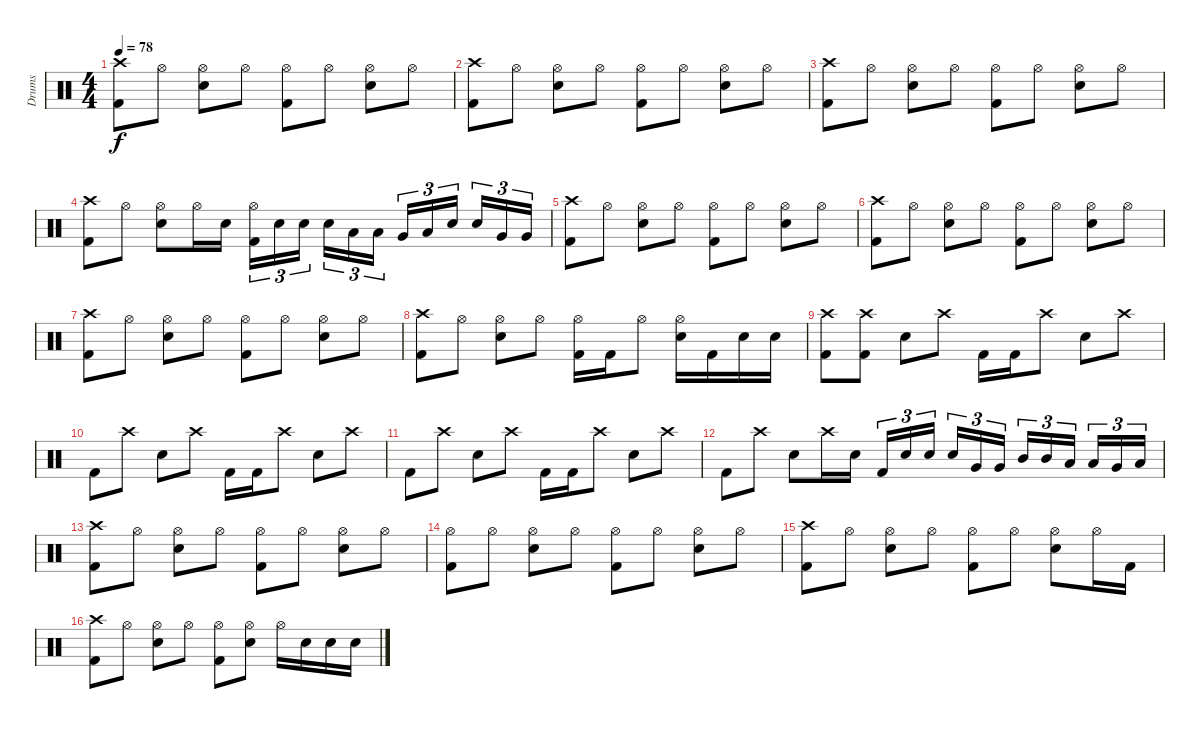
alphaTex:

\track ("Drums" "Drums") {instrument percussion}
\staff {score}
\articulation defaults
\ts (4 4)
\tempo 78
\clef neutral
\ks c
("Crash high (hit)" "Kick (hit) 2").8{dy f} "Hi-Hat (open)".8 ("Hi-Hat (open)" "Snare (hit) 2").8 "Hi-Hat (open)".8 ("Hi-Hat (open)" "Kick (hit) 2").8 "Hi-Hat (open)".8 ("Hi-Hat (open)" "Snare (hit) 2").8 "Hi-Hat (open)".8 |
("Crash high (hit)" "Kick (hit) 2").8 "Hi-Hat (open)".8 ("Hi-Hat (open)" "Snare (hit) 2").8 "Hi-Hat (open)".8 ("Hi-Hat (open)" "Kick (hit) 2").8 "Hi-Hat (open)".8 ("Hi-Hat (open)" "Snare (hit) 2").8 "Hi-Hat (open)".8 |
("Crash high (hit)" "Kick (hit) 2").8 "Hi-Hat (open)".8 ("Hi-Hat (open)" "Snare (hit) 2").8 "Hi-Hat (open)".8 ("Hi-Hat (open)" "Kick (hit) 2").8 "Hi-Hat (open)".8 ("Hi-Hat (open)" "Snare (hit) 2").8 "Hi-Hat (open)".8 |
("Crash high (hit)" "Kick (hit) 2").8 "Hi-Hat (open)".8 ("Hi-Hat (open)" "Snare (hit) 2").8 "Hi-Hat (open)".16 "Snare (hit) 2".16 ("Hi-Hat (open)" "Kick (hit) 2").16{tu (3 2)} "Snare (hit) 2".16{tu (3 2)} "Snare (hit) 2".16{tu (3 2)} "Snare (hit) 2".16{tu (3 2)} "Low Floor Tom (hit)".16{tu (3 2)} "Low Floor Tom (hit)".16{tu (3 2)} "Very Low Tom (hit)".16{tu (3 2)} "Low Floor Tom (hit)".16{tu (3 2)} "Snare (hit) 2".16{tu (3 2)} "Snare (hit) 2".16{tu (3 2)} "Very Low Tom (hit)".16{tu (3 2)} "Very Low Tom (hit)".16{tu (3 2)} |
("Crash high (hit)" "Kick (hit) 2").8 "Hi-Hat (open)".8 ("Hi-Hat (open)" "Snare (hit) 2").8 "Hi-Hat (open)".8 ("Hi-Hat (open)" "Kick (hit) 2").8 "Hi-Hat (open)".8 ("Hi-Hat (open)" "Snare (hit) 2").8 "Hi-Hat (open)".8 |
("Crash high (hit)" "Kick (hit) 2").8 "Hi-Hat (open)".8 ("Hi-Hat (open)" "Snare (hit) 2").8 "Hi-Hat (open)".8 ("Hi-Hat (open)" "Kick (hit) 2").8 "Hi-Hat (open)".8 ("Hi-Hat (open)" "Snare (hit) 2").8 "Hi-Hat (open)".8 |
("Crash high (hit)" "Kick (hit) 2").8 "Hi-Hat (open)".8 ("Hi-Hat (open)" "Snare (hit) 2").8 "Hi-Hat (open)".8 ("Hi-Hat (open)" "Kick (hit) 2").8 "Hi-Hat (open)".8 ("Hi-Hat (open)" "Snare (hit) 2").8 "Hi-Hat (open)".8 |
("Crash high (hit)" "Kick (hit) 2").8 "Hi-Hat (open)".8 ("Hi-Hat (open)" "Snare (hit) 2").8 "Hi-Hat (open)".8 ("Hi-Hat (open)" "Kick (hit) 2").16 "Kick (hit) 2".16 "Hi-Hat (open)".8 ("Hi-Hat (open)" "Snare (hit) 2").16 "Kick (hit) 2".16 "Snare (hit) 2".16 "Snare (hit) 2".16 |
("Crash high (hit)" "Kick (hit) 2").8 ("Crash high (hit)" "Kick (hit) 2").8 "Snare (hit) 2".8 "Crash high (hit)".8 "Kick (hit) 2".16 "Kick (hit) 2".16 "Crash high (hit)".8 "Snare (hit) 2".8 "Crash high (hit)".8 |
"Kick (hit) 2".8 "Crash high (hit)".8 "Snare (hit) 2".8 "Crash high (hit)".8 "Kick (hit) 2".16 "Kick (hit) 2".16 "Crash high (hit)".8 "Snare (hit) 2".8 "Crash high (hit)".8 |
"Kick (hit) 2".8 "Crash high (hit)".8 "Snare (hit) 2".8 "Crash high (hit)".8 "Kick (hit) 2".16 "Kick (hit) 2".16 "Crash high (hit)".8 "Snare (hit) 2".8 "Crash high (hit)".8 |
"Kick (hit) 2".8 "Crash high (hit)".8 "Snare (hit) 2".8 "Crash high (hit)".16 "Snare (hit) 2".16 "Kick (hit) 2".16{tu (3 2)} "Snare (hit) 2".16{tu (3 2)} "Snare (hit) 2".16{tu (3 2)} "Snare (hit) 2".16{tu (3 2)} "Very Low Tom (hit)".16{tu (3 2)} "Very Low Tom (hit)".16{tu (3 2)} "Mid Tom (hit)".16{tu (3 2)} "Mid Tom (hit)".16{tu (3 2)} "Low Tom (hit)".16{tu (3 2)} "Low Tom (hit)".16{tu (3 2)} "Very Low Tom (hit)".16{tu (3 2)} "Low Floor Tom (hit)".16{tu (3 2)} |
("Crash high (hit)" "Kick (hit) 2").8 "Hi-Hat (open)".8 ("Hi-Hat (open)" "Snare (hit) 2").8 "Hi-Hat (open)".8 ("Hi-Hat (open)" "Kick (hit) 2").8 "Hi-Hat (open)".8 ("Hi-Hat (open)" "Snare (hit) 2").8 "Hi-Hat (open)".8 |
("Hi-Hat (open)" "Kick (hit) 2").8 "Hi-Hat (open)".8 ("Hi-Hat (open)" "Snare (hit) 2").8 "Hi-Hat (open)".8 ("Hi-Hat (open)" "Kick (hit) 2").8 "Hi-Hat (open)".8 ("Hi-Hat (open)" "Snare (hit) 2").8 "Hi-Hat (open)".8 |
("Crash high (hit)" "Kick (hit) 2").8 "Hi-Hat (open)".8 ("Hi-Hat (open)" "Snare (hit) 2").8 "Hi-Hat (open)".8 ("Hi-Hat (open)" "Kick (hit) 2").8 "Hi-Hat (open)".8 ("Hi-Hat (open)" "Snare (hit) 2").8 "Hi-Hat (open)".16 "Kick (hit) 2".16 |
("Crash high (hit)" "Kick (hit) 2").8 "Hi-Hat (open)".8 ("Hi-Hat (open)" "Snare (hit) 2").8 "Hi-Hat (open)".8 ("Hi-Hat (open)" "Kick (hit) 2").8 ("Hi-Hat (open)" "Snare (hit) 2").8 "Hi-Hat (open)".16 "Snare (hit) 2".16 "Snare (hit) 2".16 "Snare (hit) 2".16
